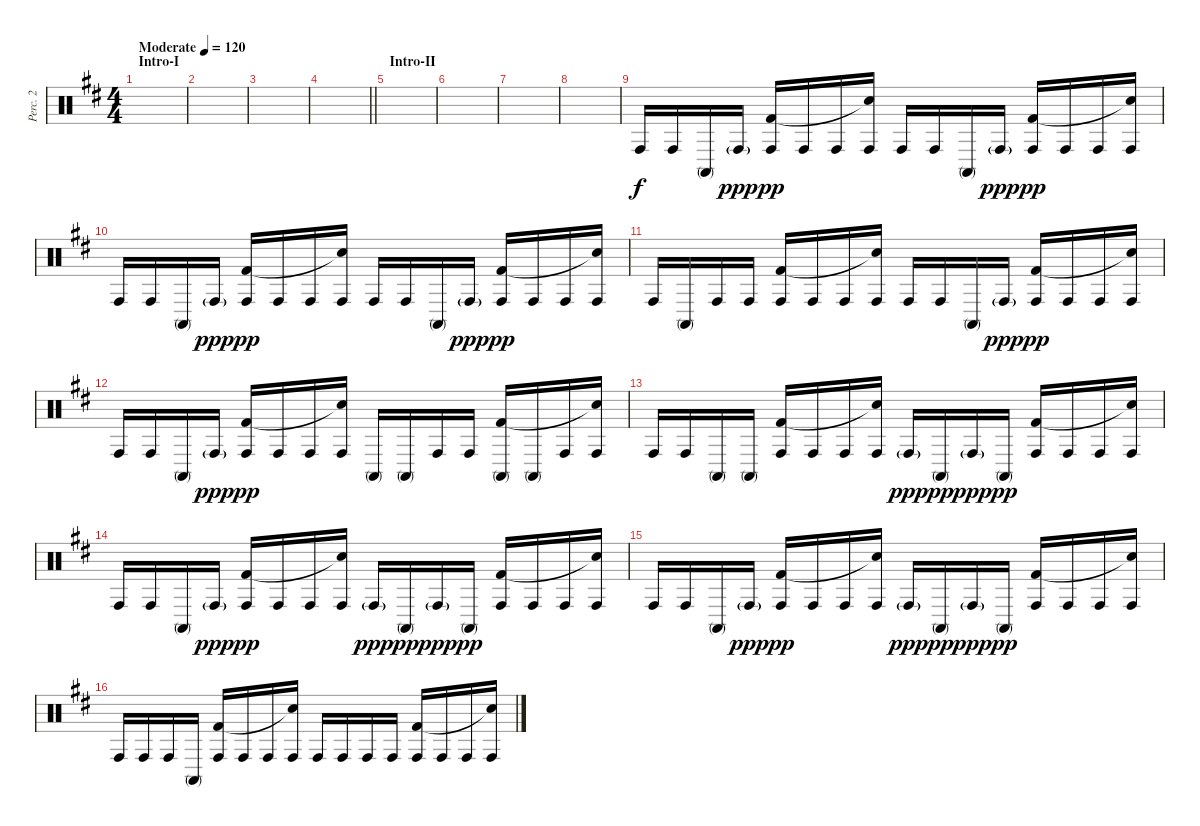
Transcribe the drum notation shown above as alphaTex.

\track ("Perc. 2" "Perc. 2") {instrument percussion}
\staff {score}
\articulation defaults
\ts (4 4)
\section ("" "Intro-I")
\tempo (120 "Moderate")
\clef neutral
\ks d
|
|
|
\barLineRight lightlight
|
\section ("" "Intro-II")
|
|
|
|
"Conga high (hit)".16 "Conga high (hit)".16 "Conga high (mute)".16 "Conga high (hit)"{g}.16{dy ppp} ("Conga high (hit)" "Kick (hit) 2").16{dy pp} "Conga high (hit)".16 "Conga high (hit)".16 ("Conga high (hit)" "Snare (hit)"{t}).16 "Conga high (hit)".16 "Conga high (hit)".16 "Conga high (mute)".16 "Conga high (hit)"{g}.16{dy ppp} ("Conga high (hit)" "Kick (hit) 2").16{dy pp} "Conga high (hit)".16 "Conga high (hit)".16 ("Conga high (hit)" "Snare (hit)"{t}).16 |
"Conga high (hit)".16 "Conga high (hit)".16 "Conga high (mute)".16 "Conga high (hit)"{g}.16{dy ppp} ("Conga high (hit)" "Kick (hit) 2").16{dy pp} "Conga high (hit)".16 "Conga high (hit)".16 ("Conga high (hit)" "Snare (hit)"{t}).16 "Conga high (hit)".16 "Conga high (hit)".16 "Conga high (mute)".16 "Conga high (hit)"{g}.16{dy ppp} ("Conga high (hit)" "Kick (hit) 2").16{dy pp} "Conga high (hit)".16 "Conga high (hit)".16 ("Conga high (hit)" "Snare (hit)"{t}).16 |
"Conga high (hit)".16 "Conga high (mute)".16 "Conga high (hit)".16 "Conga high (hit)".16 ("Conga high (hit)" "Kick (hit) 2").16 "Conga high (hit)".16 "Conga high (hit)".16 ("Conga high (hit)" "Snare (hit)"{t}).16 "Conga high (hit)".16 "Conga high (hit)".16 "Conga high (mute)".16 "Conga high (hit)"{g}.16{dy ppp} ("Conga high (hit)" "Kick (hit) 2").16{dy pp} "Conga high (hit)".16 "Conga high (hit)".16 ("Conga high (hit)" "Snare (hit)"{t}).16 |
"Conga high (hit)".16 "Conga high (hit)".16 "Conga high (mute)".16 "Conga high (hit)"{g}.16{dy ppp} ("Conga high (hit)" "Kick (hit) 2").16{dy pp} "Conga high (hit)".16 "Conga high (hit)".16 ("Conga high (hit)" "Snare (hit)"{t}).16 "Conga high (mute)".16 "Conga high (mute)".16 "Conga high (hit)".16 "Conga high (hit)".16 ("Conga high (mute)" "Kick (hit) 2").16 "Conga high (mute)".16 "Conga high (hit)".16 ("Conga high (hit)" "Snare (hit)"{t}).16 |
"Conga high (hit)".16 "Conga high (hit)".16 "Conga high (mute)".16 "Conga high (mute)".16 ("Conga high (hit)" "Kick (hit) 2").16 "Conga high (hit)".16 "Conga high (hit)".16 ("Conga high (hit)" "Snare (hit)"{t}).16 "Conga high (hit)"{g}.16{dy ppp} "Conga high (mute)".16{dy pp} "Conga high (hit)"{g}.16{dy ppp} "Conga high (mute)".16{dy pp} ("Conga high (hit)" "Kick (hit) 2").16 "Conga high (hit)".16 "Conga high (hit)".16 ("Conga high (hit)" "Snare (hit)"{t}).16 |
"Conga high (hit)".16 "Conga high (hit)".16 "Conga high (mute)".16 "Conga high (hit)"{g}.16{dy ppp} ("Conga high (hit)" "Kick (hit) 2").16{dy pp} "Conga high (hit)".16 "Conga high (hit)".16 ("Conga high (hit)" "Snare (hit)"{t}).16 "Conga high (hit)"{g}.16{dy ppp} "Conga high (mute)".16{dy pp} "Conga high (hit)"{g}.16{dy ppp} "Conga high (mute)".16{dy pp} ("Conga high (hit)" "Kick (hit) 2").16 "Conga high (hit)".16 "Conga high (hit)".16 ("Conga high (hit)" "Snare (hit)"{t}).16 |
"Conga high (hit)".16 "Conga high (hit)".16 "Conga high (mute)".16 "Conga high (hit)"{g}.16{dy ppp} ("Conga high (hit)" "Kick (hit) 2").16{dy pp} "Conga high (hit)".16 "Conga high (hit)".16 ("Conga high (hit)" "Snare (hit)"{t}).16 "Conga high (hit)"{g}.16{dy ppp} "Conga high (mute)".16{dy pp} "Conga high (hit)"{g}.16{dy ppp} "Conga high (mute)".16{dy pp} ("Conga high (hit)" "Kick (hit) 2").16 "Conga high (hit)".16 "Conga high (hit)".16 ("Conga high (hit)" "Snare (hit)"{t}).16 |
"Conga high (hit)".16 "Conga high (hit)".16 "Conga high (hit)".16 "Conga high (mute)".16 ("Conga high (hit)" "Kick (hit) 2").16 "Conga high (hit)".16 "Conga high (hit)".16 ("Conga high (hit)" "Snare (hit)"{t}).16 "Conga high (hit)".16 "Conga high (hit)".16 "Conga high (hit)".16 "Conga high (hit)".16 ("Conga high (hit)" "Kick (hit) 2").16 "Conga high (hit)".16 "Conga high (hit)".16 ("Conga high (hit)" "Snare (hit)"{t}).16
